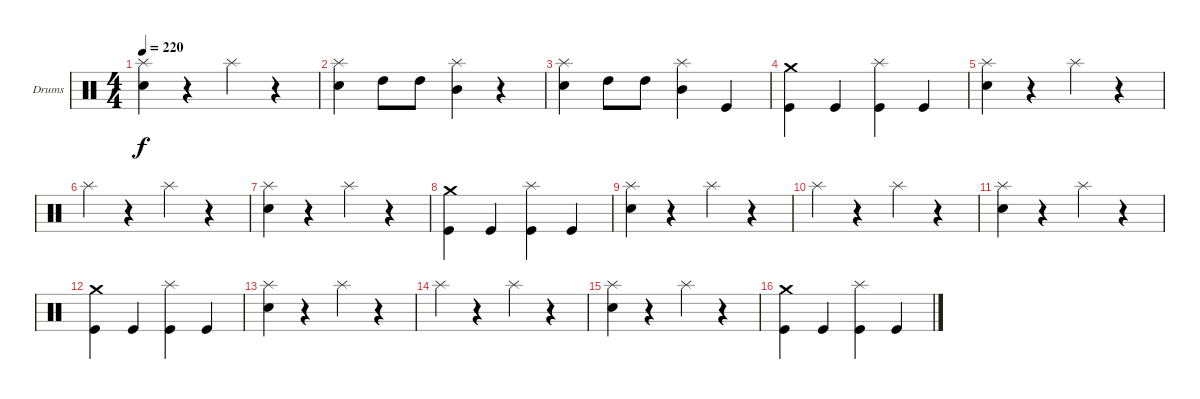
\bracketExtendMode groupsimilarinstruments
\firstSystemTrackNameOrientation horizontal
\otherSystemsTrackNameOrientation horizontal
\track ("Drumkit" "Drums") {instrument percussion}
\staff {score}
\articulation defaults
\ts (4 4)
\tempo 220
\clef neutral
\ks c
("Splash (hit)" "Snare (hit) 2").4{dy f} r.4 "Splash (hit)".4 r.4 |
("Splash (hit)" "Snare (hit) 2").4 "High Tom (hit)".8 "High Tom (hit)".8 ("Splash (hit)" "Mid Tom (hit)").4 r.4 |
("Splash (hit)" "Snare (hit) 2").4 "High Tom (hit)".8 "High Tom (hit)".8 ("Splash (hit)" "Mid Tom (hit)").4 "Kick (hit)".4 |
("Crash medium (hit)" "Kick (hit)").4 "Kick (hit)".4 ("Splash (hit)" "Kick (hit)").4 "Kick (hit)".4 |
("Splash (hit)" "Snare (hit) 2").4 r.4 "Splash (hit)".4 r.4 |
"Splash (hit)".4 r.4 "Splash (hit)".4 r.4 |
("Splash (hit)" "Snare (hit) 2").4 r.4 "Splash (hit)".4 r.4 |
("Crash medium (hit)" "Kick (hit)").4 "Kick (hit)".4 ("Splash (hit)" "Kick (hit)").4 "Kick (hit)".4 |
("Splash (hit)" "Snare (hit) 2").4 r.4 "Splash (hit)".4 r.4 |
"Splash (hit)".4 r.4 "Splash (hit)".4 r.4 |
("Splash (hit)" "Snare (hit) 2").4 r.4 "Splash (hit)".4 r.4 |
("Crash medium (hit)" "Kick (hit)").4 "Kick (hit)".4 ("Splash (hit)" "Kick (hit)").4 "Kick (hit)".4 |
("Splash (hit)" "Snare (hit) 2").4 r.4 "Splash (hit)".4 r.4 |
"Splash (hit)".4 r.4 "Splash (hit)".4 r.4 |
("Splash (hit)" "Snare (hit) 2").4 r.4 "Splash (hit)".4 r.4 |
("Crash medium (hit)" "Kick (hit)").4 "Kick (hit)".4 ("Splash (hit)" "Kick (hit)").4 "Kick (hit)".4
